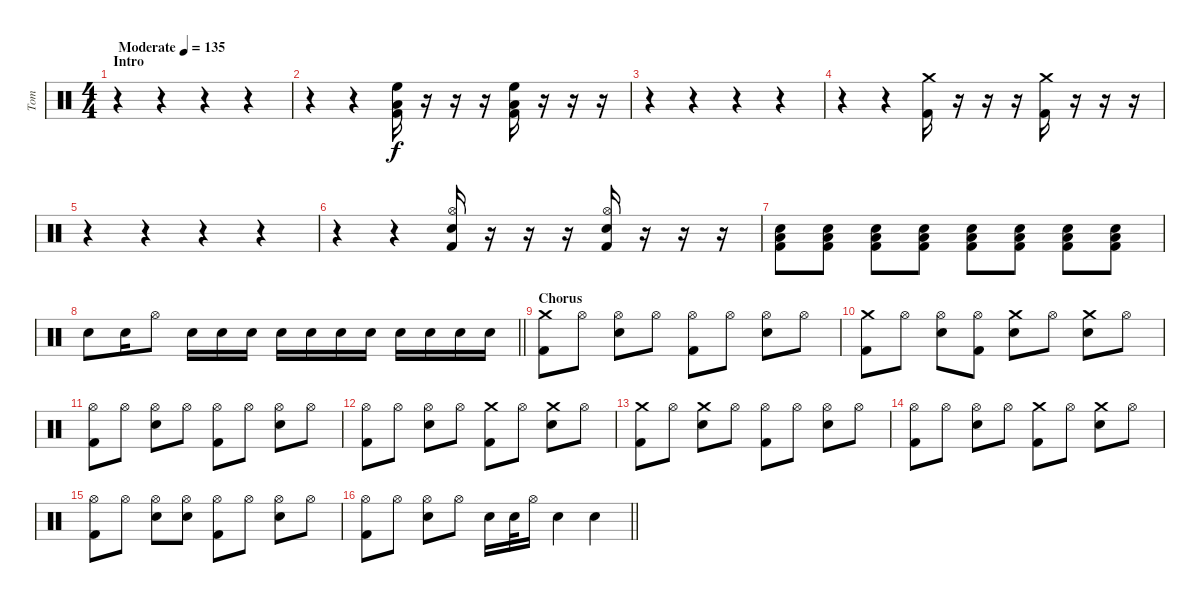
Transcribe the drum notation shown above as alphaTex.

\track ("Tom" "Tom") {instrument percussion}
\staff {score}
\articulation defaults
\ts (4 4)
\section ("" "Intro")
\tempo (135 "Moderate")
\clef neutral
\ks c
r.4{dy f} r.4 r.4 r.4 |
r.4 r.4 ("High Floor Tom (hit)" "Low Floor Tom (hit)" "Kick (hit) 2").16 r.16 r.16 r.16 ("High Floor Tom (hit)" "Low Floor Tom (hit)" "Kick (hit) 2").16 r.16 r.16 r.16 |
r.4 r.4 r.4 r.4 |
r.4 r.4 ("Crash medium (hit)" "Kick (hit) 2").16 r.16 r.16 r.16 ("Crash medium (hit)" "Kick (hit) 2").16 r.16 r.16 r.16 |
r.4 r.4 r.4 r.4 |
r.4 r.4 ("Hi-Hat (open)" "Electric Snare (hit)" "Kick (hit) 2").16 r.16 r.16 r.16 ("Hi-Hat (open)" "Electric Snare (hit)" "Kick (hit) 2").16 r.16 r.16 r.16 |
("Electric Snare (hit)" "Low Floor Tom (hit)" "Kick (hit) 2").8 ("Electric Snare (hit)" "Low Floor Tom (hit)" "Kick (hit) 2").8 ("Electric Snare (hit)" "Low Floor Tom (hit)" "Kick (hit) 2").8 ("Electric Snare (hit)" "Low Floor Tom (hit)" "Kick (hit) 2").8 ("Electric Snare (hit)" "Low Floor Tom (hit)" "Kick (hit) 2").8 ("Electric Snare (hit)" "Low Floor Tom (hit)" "Kick (hit) 2").8 ("Electric Snare (hit)" "Low Floor Tom (hit)" "Kick (hit) 2").8 ("Electric Snare (hit)" "Low Floor Tom (hit)" "Kick (hit) 2").8 |
\barLineRight lightlight "Electric Snare (hit)".8 "Electric Snare (hit)".16 "Hi-Hat (open)".8 "Electric Snare (hit)".16 "Electric Snare (hit)".16 "Electric Snare (hit)".16 "Electric Snare (hit)".16 "Electric Snare (hit)".16 "Electric Snare (hit)".16 "Electric Snare (hit)".16 "Electric Snare (hit)".16 "Electric Snare (hit)".16 "Electric Snare (hit)".16 "Electric Snare (hit)".16
|
\section ("" "Chorus")
("Crash medium (hit)" "Kick (hit) 2").8 "Hi-Hat (open)".8 ("Hi-Hat (open)" "Electric Snare (hit)").8 "Hi-Hat (open)".8 ("Hi-Hat (open)" "Kick (hit) 2").8 "Hi-Hat (open)".8 ("Hi-Hat (open)" "Electric Snare (hit)").8 "Hi-Hat (open)".8 |
("Crash medium (hit)" "Kick (hit) 2").8 "Hi-Hat (open)".8 ("Hi-Hat (open)" "Electric Snare (hit)").8 ("Hi-Hat (open)" "Kick (hit) 2").8 ("Crash medium (hit)" "Electric Snare (hit)").8 "Hi-Hat (open)".8 ("Crash medium (hit)" "Electric Snare (hit)").8 "Hi-Hat (open)".8 |
("Hi-Hat (open)" "Kick (hit) 2").8 "Hi-Hat (open)".8 ("Hi-Hat (open)" "Electric Snare (hit)").8 "Hi-Hat (open)".8 ("Hi-Hat (open)" "Kick (hit) 2").8 "Hi-Hat (open)".8 ("Hi-Hat (open)" "Electric Snare (hit)").8 "Hi-Hat (open)".8 |
("Hi-Hat (open)" "Kick (hit) 2").8 "Hi-Hat (open)".8 ("Hi-Hat (open)" "Electric Snare (hit)").8 "Hi-Hat (open)".8 ("Crash medium (hit)" "Kick (hit) 2").8 "Hi-Hat (open)".8 ("Crash medium (hit)" "Electric Snare (hit)").8 "Hi-Hat (open)".8 |
("Crash medium (hit)" "Kick (hit) 2").8 "Hi-Hat (open)".8 ("Crash medium (hit)" "Electric Snare (hit)").8 "Hi-Hat (open)".8 ("Hi-Hat (open)" "Kick (hit) 2").8 "Hi-Hat (open)".8 ("Hi-Hat (open)" "Electric Snare (hit)").8 "Hi-Hat (open)".8 |
("Hi-Hat (open)" "Kick (hit) 2").8 "Hi-Hat (open)".8 ("Hi-Hat (open)" "Electric Snare (hit)").8 "Hi-Hat (open)".8 ("Crash medium (hit)" "Kick (hit) 2").8 "Hi-Hat (open)".8 ("Crash medium (hit)" "Electric Snare (hit)").8 "Hi-Hat (open)".8 |
("Hi-Hat (open)" "Kick (hit) 2").8 "Hi-Hat (open)".8 ("Hi-Hat (open)" "Electric Snare (hit)").8 ("Hi-Hat (open)" "Electric Snare (hit)").8 ("Hi-Hat (open)" "Kick (hit) 2").8 "Hi-Hat (open)".8 ("Hi-Hat (open)" "Electric Snare (hit)").8 "Hi-Hat (open)".8 |
\barLineRight lightlight
("Hi-Hat (open)" "Kick (hit) 2").8 "Hi-Hat (open)".8 ("Hi-Hat (open)" "Electric Snare (hit)").8 "Hi-Hat (open)".8 "Electric Snare (hit)".16 "Electric Snare (hit)".32 "Hi-Hat (open)".16 "Electric Snare (hit)".4 "Electric Snare (hit)".4
